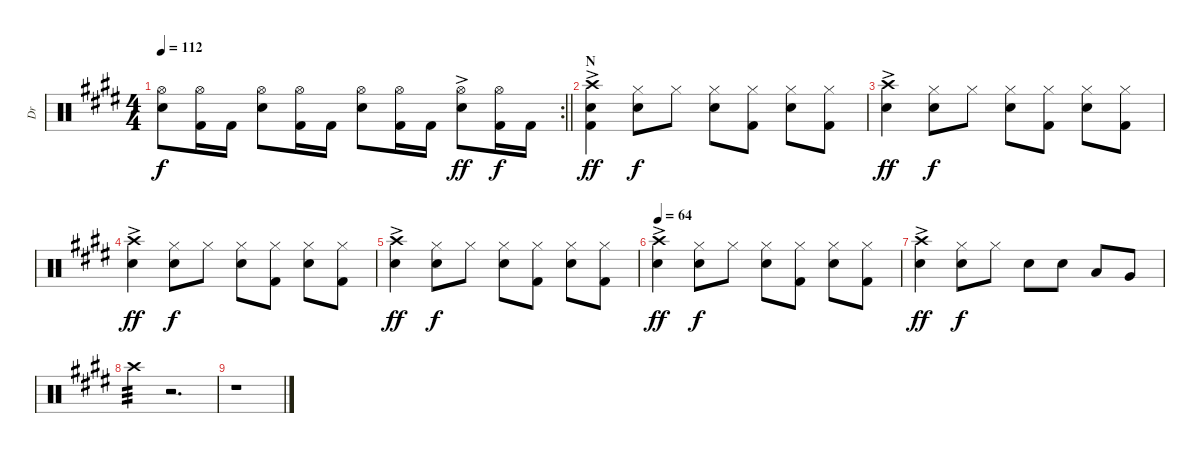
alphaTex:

\track ("Dr" "Dr") {instrument percussion}
\staff {score}
\articulation defaults
\rc 2
\ts (4 4)
\tempo 112
\clef neutral
\barLineRight lightlight
\ks e
("Hi-Hat (open)" "Electric Snare (hit)").8{dy f} ("Hi-Hat (open)" "Kick (hit) 2").16 "Kick (hit) 2".16 ("Hi-Hat (open)" "Electric Snare (hit)").8 ("Hi-Hat (open)" "Kick (hit) 2").16 "Kick (hit) 2".16 ("Hi-Hat (open)" "Electric Snare (hit)").8 ("Hi-Hat (open)" "Kick (hit) 2").16 "Kick (hit) 2".16 ("Hi-Hat (open)"{ac} "Electric Snare (hit)"{ac}).8{dy ff} ("Hi-Hat (open)" "Kick (hit) 2").16{dy f} "Kick (hit) 2".16 |
\section ("" "N")
("Crash high (hit)"{ac} "Electric Snare (hit)"{ac} "Kick (hit) 2"{ac}).4{dy ff} ("Hi-Hat (closed)" "Electric Snare (hit)").8{dy f} "Hi-Hat (closed)".8 ("Hi-Hat (closed)" "Electric Snare (hit)").8 ("Hi-Hat (closed)" "Kick (hit) 2").8 ("Hi-Hat (closed)" "Electric Snare (hit)").8 ("Hi-Hat (closed)" "Kick (hit) 2").8 |
("Crash high (hit)"{ac} "Electric Snare (hit)"{ac}).4{dy ff} ("Hi-Hat (closed)" "Electric Snare (hit)").8{dy f} "Hi-Hat (closed)".8 ("Hi-Hat (closed)" "Electric Snare (hit)").8 ("Hi-Hat (closed)" "Kick (hit) 2").8 ("Hi-Hat (closed)" "Electric Snare (hit)").8 ("Hi-Hat (closed)" "Kick (hit) 2").8 |
("Crash high (hit)"{ac} "Electric Snare (hit)"{ac}).4{dy ff} ("Hi-Hat (closed)" "Electric Snare (hit)").8{dy f} "Hi-Hat (closed)".8 ("Hi-Hat (closed)" "Electric Snare (hit)").8 ("Hi-Hat (closed)" "Kick (hit) 2").8 ("Hi-Hat (closed)" "Electric Snare (hit)").8 ("Hi-Hat (closed)" "Kick (hit) 2").8 |
("Crash high (hit)"{ac} "Electric Snare (hit)"{ac}).4{dy ff} ("Hi-Hat (closed)" "Electric Snare (hit)").8{dy f} "Hi-Hat (closed)".8 ("Hi-Hat (closed)" "Electric Snare (hit)").8 ("Hi-Hat (closed)" "Kick (hit) 2").8 ("Hi-Hat (closed)" "Electric Snare (hit)").8 ("Hi-Hat (closed)" "Kick (hit) 2").8 |
\tempo 64
("Crash high (hit)"{ac} "Electric Snare (hit)"{ac}).4{dy ff} ("Hi-Hat (closed)" "Electric Snare (hit)").8{dy f} "Hi-Hat (closed)".8 ("Hi-Hat (closed)" "Electric Snare (hit)").8 ("Hi-Hat (closed)" "Kick (hit) 2").8 ("Hi-Hat (closed)" "Electric Snare (hit)").8 ("Hi-Hat (closed)" "Kick (hit) 2").8 |
("Crash high (hit)"{ac} "Electric Snare (hit)"{ac}).4{dy ff} ("Hi-Hat (closed)" "Electric Snare (hit)").8{dy f} "Hi-Hat (closed)".8 "Electric Snare (hit)".8 "Electric Snare (hit)".8 "Low Tom (hit)".8 "Very Low Tom (hit)".8 |
"Crash high (hit)".4{tp 3} r.2{d} |
r.1
